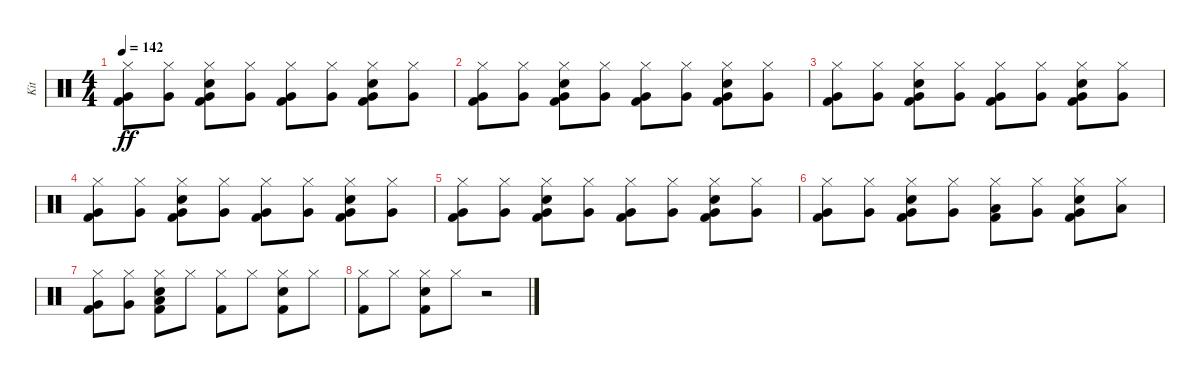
\track ("Kit" "Kit") {instrument percussion}
\staff {score}
\articulation defaults
\ts (4 4)
\tempo 142
\clef neutral
\ks c
("Kick (hit) 2" "Hi-Hat (closed)" "Very Low Tom (hit)").8{dy ff} ("Hi-Hat (closed)" "Very Low Tom (hit)").8 ("Kick (hit) 2" "Electric Snare (hit)" "Hi-Hat (closed)" "Very Low Tom (hit)").8 ("Hi-Hat (closed)" "Very Low Tom (hit)").8 ("Kick (hit) 2" "Hi-Hat (closed)" "Very Low Tom (hit)").8 ("Hi-Hat (closed)" "Very Low Tom (hit)").8 ("Kick (hit) 2" "Electric Snare (hit)" "Hi-Hat (closed)" "Very Low Tom (hit)").8 ("Hi-Hat (closed)" "Very Low Tom (hit)").8 |
("Kick (hit) 2" "Hi-Hat (closed)" "Very Low Tom (hit)").8 ("Hi-Hat (closed)" "Very Low Tom (hit)").8 ("Kick (hit) 2" "Electric Snare (hit)" "Hi-Hat (closed)" "Very Low Tom (hit)").8 ("Hi-Hat (closed)" "Very Low Tom (hit)").8 ("Kick (hit) 2" "Hi-Hat (closed)" "Very Low Tom (hit)").8 ("Hi-Hat (closed)" "Very Low Tom (hit)").8 ("Kick (hit) 2" "Electric Snare (hit)" "Hi-Hat (closed)" "Very Low Tom (hit)").8 ("Hi-Hat (closed)" "Very Low Tom (hit)").8 |
("Kick (hit) 2" "Hi-Hat (closed)" "Very Low Tom (hit)").8 ("Hi-Hat (closed)" "Very Low Tom (hit)").8 ("Kick (hit) 2" "Electric Snare (hit)" "Hi-Hat (closed)" "Very Low Tom (hit)").8 ("Hi-Hat (closed)" "Very Low Tom (hit)").8 ("Kick (hit) 2" "Hi-Hat (closed)" "Very Low Tom (hit)").8 ("Hi-Hat (closed)" "Very Low Tom (hit)").8 ("Kick (hit) 2" "Electric Snare (hit)" "Hi-Hat (closed)" "Very Low Tom (hit)").8 ("Hi-Hat (closed)" "Very Low Tom (hit)").8 |
("Kick (hit) 2" "Hi-Hat (closed)" "Very Low Tom (hit)").8 ("Hi-Hat (closed)" "Very Low Tom (hit)").8 ("Kick (hit) 2" "Electric Snare (hit)" "Hi-Hat (closed)" "Very Low Tom (hit)").8 ("Hi-Hat (closed)" "Very Low Tom (hit)").8 ("Kick (hit) 2" "Hi-Hat (closed)" "Very Low Tom (hit)").8 ("Hi-Hat (closed)" "Very Low Tom (hit)").8 ("Kick (hit) 2" "Electric Snare (hit)" "Hi-Hat (closed)" "Very Low Tom (hit)").8 ("Hi-Hat (closed)" "Very Low Tom (hit)").8 |
("Kick (hit) 2" "Hi-Hat (closed)" "Very Low Tom (hit)").8 ("Hi-Hat (closed)" "Very Low Tom (hit)").8 ("Kick (hit) 2" "Electric Snare (hit)" "Hi-Hat (closed)" "Very Low Tom (hit)").8 ("Hi-Hat (closed)" "Very Low Tom (hit)").8 ("Kick (hit) 2" "Hi-Hat (closed)" "Very Low Tom (hit)").8 ("Hi-Hat (closed)" "Very Low Tom (hit)").8 ("Kick (hit) 2" "Electric Snare (hit)" "Hi-Hat (closed)" "Very Low Tom (hit)").8 ("Hi-Hat (closed)" "Very Low Tom (hit)").8 |
("Kick (hit) 2" "Hi-Hat (closed)" "Very Low Tom (hit)").8 ("Hi-Hat (closed)" "Very Low Tom (hit)").8 ("Kick (hit) 2" "Electric Snare (hit)" "Hi-Hat (closed)" "Very Low Tom (hit)").8 ("Hi-Hat (closed)" "Very Low Tom (hit)").8 ("Kick (hit) 2" "Hi-Hat (closed)" "Low Tom (hit)").8 ("Hi-Hat (closed)" "Very Low Tom (hit)").8 ("Kick (hit) 2" "Electric Snare (hit)" "Hi-Hat (closed)" "Very Low Tom (hit)").8 ("Hi-Hat (closed)" "Low Tom (hit)").8 |
("Kick (hit) 2" "Hi-Hat (closed)" "Very Low Tom (hit)").8 ("Hi-Hat (closed)" "Very Low Tom (hit)").8 ("Kick (hit) 2" "Electric Snare (hit)" "Hi-Hat (closed)" "Low Tom (hit)").8 "Hi-Hat (closed)".8 ("Kick (hit) 2" "Hi-Hat (closed)").8 "Hi-Hat (closed)".8 ("Kick (hit) 2" "Electric Snare (hit)" "Hi-Hat (closed)").8 "Hi-Hat (closed)".8 |
("Kick (hit) 2" "Hi-Hat (closed)").8 "Hi-Hat (closed)".8 ("Kick (hit) 2" "Electric Snare (hit)" "Hi-Hat (closed)").8 "Hi-Hat (closed)".8 r.2
